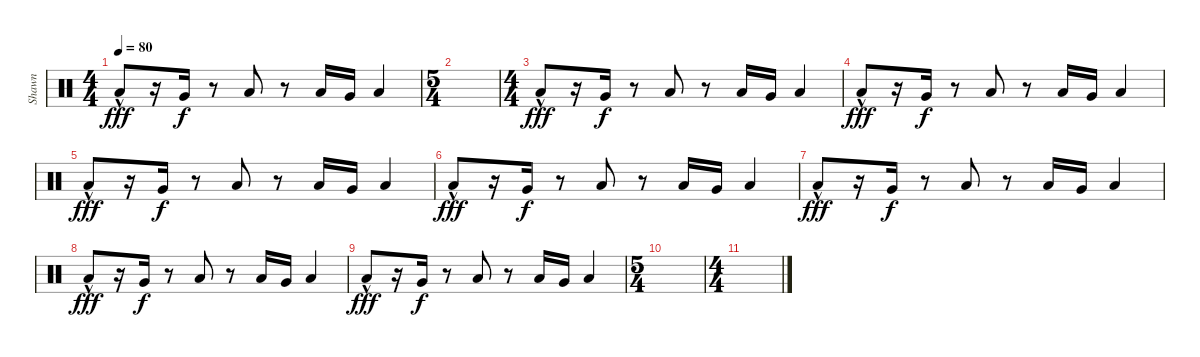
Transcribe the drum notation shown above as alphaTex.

\track ("Shawn" "Shawn") {instrument percussion}
\staff {score}
\articulation defaults
\ts (4 4)
\tempo 80
\clef neutral
\ks c "Low Floor Tom (hit)"{hac}.8{dy fff}
r.16 "Very Low Tom (hit)".16{dy f} r.8 "Low Floor Tom (hit)".8 r.8 "Low Floor Tom (hit)".16 "Very Low Tom (hit)".16 "Low Floor Tom (hit)".4 |
\ts (5 4)
|
\ts (4 4)
"Low Floor Tom (hit)"{hac}.8{dy fff} r.16 "Very Low Tom (hit)".16{dy f} r.8 "Low Floor Tom (hit)".8 r.8 "Low Floor Tom (hit)".16 "Very Low Tom (hit)".16 "Low Floor Tom (hit)".4 |
"Low Floor Tom (hit)"{hac}.8{dy fff} r.16 "Very Low Tom (hit)".16{dy f} r.8 "Low Floor Tom (hit)".8 r.8 "Low Floor Tom (hit)".16 "Very Low Tom (hit)".16 "Low Floor Tom (hit)".4 |
"Low Floor Tom (hit)"{hac}.8{dy fff} r.16 "Very Low Tom (hit)".16{dy f} r.8 "Low Floor Tom (hit)".8 r.8 "Low Floor Tom (hit)".16 "Very Low Tom (hit)".16 "Low Floor Tom (hit)".4 |
"Low Floor Tom (hit)"{hac}.8{dy fff} r.16 "Very Low Tom (hit)".16{dy f} r.8 "Low Floor Tom (hit)".8 r.8 "Low Floor Tom (hit)".16 "Very Low Tom (hit)".16 "Low Floor Tom (hit)".4 |
"Low Floor Tom (hit)"{hac}.8{dy fff} r.16 "Very Low Tom (hit)".16{dy f} r.8 "Low Floor Tom (hit)".8 r.8 "Low Floor Tom (hit)".16 "Very Low Tom (hit)".16 "Low Floor Tom (hit)".4 |
"Low Floor Tom (hit)"{hac}.8{dy fff} r.16 "Very Low Tom (hit)".16{dy f} r.8 "Low Floor Tom (hit)".8 r.8 "Low Floor Tom (hit)".16 "Very Low Tom (hit)".16 "Low Floor Tom (hit)".4 |
"Low Floor Tom (hit)"{hac}.8{dy fff} r.16 "Very Low Tom (hit)".16{dy f} r.8 "Low Floor Tom (hit)".8 r.8 "Low Floor Tom (hit)".16 "Very Low Tom (hit)".16 "Low Floor Tom (hit)".4 |
\ts (5 4)
|
\ts (4 4)
